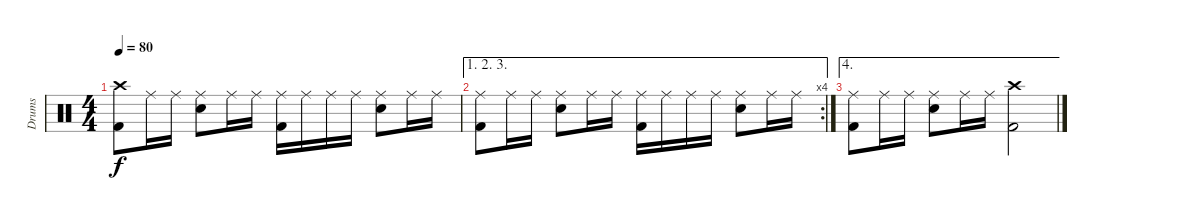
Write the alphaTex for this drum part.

\track ("Drums" "Drums") {instrument percussion}
\staff {score}
\articulation defaults
\ts (4 4)
\tempo 80
\clef neutral
\ks c
("Kick (hit) 2" "Crash high (hit)").8{dy f} "Ride (middle)".16 "Ride (middle)".16 ("Electric Snare (hit)" "Ride (middle)").8 "Ride (middle)".16 "Ride (middle)".16 ("Kick (hit) 2" "Ride (middle)").16 "Ride (middle)".16 "Ride (middle)".16 "Ride (middle)".16 ("Electric Snare (hit)" "Ride (middle)").8 "Ride (middle)".16 "Ride (middle)".16 |
\ae (1 2 3)
\rc 4
("Kick (hit) 2" "Ride (middle)").8 "Ride (middle)".16 "Ride (middle)".16 ("Electric Snare (hit)" "Ride (middle)").8 "Ride (middle)".16 "Ride (middle)".16 ("Kick (hit) 2" "Ride (middle)").16 "Ride (middle)".16 "Ride (middle)".16 "Ride (middle)".16 ("Electric Snare (hit)" "Ride (middle)").8 "Ride (middle)".16 "Ride (middle)".16 |
\ae 4
("Kick (hit) 2" "Ride (middle)").8 "Ride (middle)".16 "Ride (middle)".16 ("Electric Snare (hit)" "Ride (middle)").8 "Ride (middle)".16 "Ride (middle)".16 ("Kick (hit) 2" "Crash high (hit)").2
